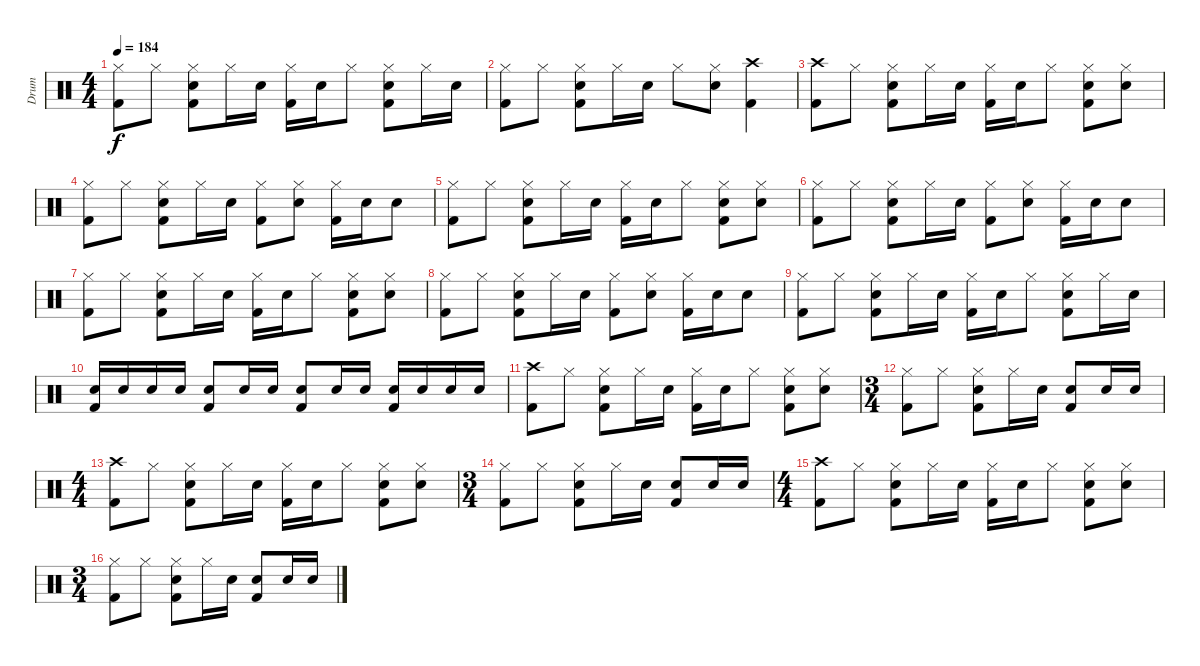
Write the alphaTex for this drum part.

\track ("Drum" "Drum") {instrument percussion}
\staff {score}
\articulation defaults
\ts (4 4)
\tempo 184
\clef neutral
\ks c
("Hi-Hat (closed)" "Kick (hit) 2").8{dy f} "Hi-Hat (closed)".8 ("Hi-Hat (closed)" "Electric Snare (hit)" "Kick (hit) 2").8 "Hi-Hat (closed)".16 "Electric Snare (hit)".16 ("Hi-Hat (closed)" "Kick (hit) 2").16 "Electric Snare (hit)".16 "Hi-Hat (closed)".8 ("Hi-Hat (closed)" "Electric Snare (hit)" "Kick (hit) 2").8 "Hi-Hat (closed)".16 "Electric Snare (hit)".16 |
("Hi-Hat (closed)" "Kick (hit) 2").8 "Hi-Hat (closed)".8 ("Hi-Hat (closed)" "Electric Snare (hit)" "Kick (hit) 2").8 "Hi-Hat (closed)".16 "Electric Snare (hit)".16 "Hi-Hat (closed)".8 ("Hi-Hat (closed)" "Electric Snare (hit)").8 ("Crash high (hit)" "Kick (hit) 2").4 |
("Crash high (hit)" "Kick (hit) 2").8 "Hi-Hat (closed)".8 ("Hi-Hat (closed)" "Electric Snare (hit)" "Kick (hit) 2").8 "Hi-Hat (closed)".16 "Electric Snare (hit)".16 ("Hi-Hat (closed)" "Kick (hit) 2").16 "Electric Snare (hit)".16 "Hi-Hat (closed)".8 ("Hi-Hat (closed)" "Electric Snare (hit)" "Kick (hit) 2").8 ("Hi-Hat (closed)" "Electric Snare (hit)").8 |
("Hi-Hat (closed)" "Kick (hit) 2").8 "Hi-Hat (closed)".8 ("Hi-Hat (closed)" "Electric Snare (hit)" "Kick (hit) 2").8 "Hi-Hat (closed)".16 "Electric Snare (hit)".16 ("Hi-Hat (closed)" "Kick (hit) 2").8 ("Hi-Hat (closed)" "Electric Snare (hit)").8 ("Hi-Hat (closed)" "Kick (hit) 2").16 "Electric Snare (hit)".16 "Electric Snare (hit)".8 |
("Hi-Hat (closed)" "Kick (hit) 2").8 "Hi-Hat (closed)".8 ("Hi-Hat (closed)" "Electric Snare (hit)" "Kick (hit) 2").8 "Hi-Hat (closed)".16 "Electric Snare (hit)".16 ("Hi-Hat (closed)" "Kick (hit) 2").16 "Electric Snare (hit)".16 "Hi-Hat (closed)".8 ("Hi-Hat (closed)" "Electric Snare (hit)" "Kick (hit) 2").8 ("Hi-Hat (closed)" "Electric Snare (hit)").8 |
("Hi-Hat (closed)" "Kick (hit) 2").8 "Hi-Hat (closed)".8 ("Hi-Hat (closed)" "Electric Snare (hit)" "Kick (hit) 2").8 "Hi-Hat (closed)".16 "Electric Snare (hit)".16 ("Hi-Hat (closed)" "Kick (hit) 2").8 ("Hi-Hat (closed)" "Electric Snare (hit)").8 ("Hi-Hat (closed)" "Kick (hit) 2").16 "Electric Snare (hit)".16 "Electric Snare (hit)".8 |
("Hi-Hat (closed)" "Kick (hit) 2").8 "Hi-Hat (closed)".8 ("Hi-Hat (closed)" "Electric Snare (hit)" "Kick (hit) 2").8 "Hi-Hat (closed)".16 "Electric Snare (hit)".16 ("Hi-Hat (closed)" "Kick (hit) 2").16 "Electric Snare (hit)".16 "Hi-Hat (closed)".8 ("Hi-Hat (closed)" "Electric Snare (hit)" "Kick (hit) 2").8 ("Hi-Hat (closed)" "Electric Snare (hit)").8 |
("Hi-Hat (closed)" "Kick (hit) 2").8 "Hi-Hat (closed)".8 ("Hi-Hat (closed)" "Electric Snare (hit)" "Kick (hit) 2").8 "Hi-Hat (closed)".16 "Electric Snare (hit)".16 ("Hi-Hat (closed)" "Kick (hit) 2").8 ("Hi-Hat (closed)" "Electric Snare (hit)").8 ("Hi-Hat (closed)" "Kick (hit) 2").16 "Electric Snare (hit)".16 "Electric Snare (hit)".8 |
("Hi-Hat (closed)" "Kick (hit) 2").8 "Hi-Hat (closed)".8 ("Hi-Hat (closed)" "Electric Snare (hit)" "Kick (hit) 2").8 "Hi-Hat (closed)".16 "Electric Snare (hit)".16 ("Hi-Hat (closed)" "Kick (hit) 2").16 "Electric Snare (hit)".16 "Hi-Hat (closed)".8 ("Hi-Hat (closed)" "Electric Snare (hit)" "Kick (hit) 2").8 "Hi-Hat (closed)".16 "Electric Snare (hit)".16 |
("Electric Snare (hit)" "Kick (hit) 2").16 "Electric Snare (hit)".16 "Electric Snare (hit)".16 "Electric Snare (hit)".16 ("Electric Snare (hit)" "Kick (hit) 2").8 "Electric Snare (hit)".16 "Electric Snare (hit)".16 ("Electric Snare (hit)" "Kick (hit) 2").8 "Electric Snare (hit)".16 "Electric Snare (hit)".16 ("Electric Snare (hit)" "Kick (hit) 2").16 "Electric Snare (hit)".16 "Electric Snare (hit)".16 "Electric Snare (hit)".16 |
("Crash high (hit)" "Kick (hit) 2").8 "Hi-Hat (closed)".8 ("Hi-Hat (closed)" "Electric Snare (hit)" "Kick (hit) 2").8 "Hi-Hat (closed)".16 "Electric Snare (hit)".16 ("Hi-Hat (closed)" "Kick (hit) 2").16 "Electric Snare (hit)".16 "Hi-Hat (closed)".8 ("Hi-Hat (closed)" "Electric Snare (hit)" "Kick (hit) 2").8 ("Hi-Hat (closed)" "Electric Snare (hit)").8 |
\ts (3 4)
("Hi-Hat (closed)" "Kick (hit) 2").8 "Hi-Hat (closed)".8 ("Hi-Hat (closed)" "Electric Snare (hit)" "Kick (hit) 2").8 "Hi-Hat (closed)".16 "Electric Snare (hit)".16 ("Electric Snare (hit)" "Kick (hit) 2").8 "Electric Snare (hit)".16 "Electric Snare (hit)".16 |
\ts (4 4)
("Crash high (hit)" "Kick (hit) 2").8 "Hi-Hat (closed)".8 ("Hi-Hat (closed)" "Electric Snare (hit)" "Kick (hit) 2").8 "Hi-Hat (closed)".16 "Electric Snare (hit)".16 ("Hi-Hat (closed)" "Kick (hit) 2").16 "Electric Snare (hit)".16 "Hi-Hat (closed)".8 ("Hi-Hat (closed)" "Electric Snare (hit)" "Kick (hit) 2").8 ("Hi-Hat (closed)" "Electric Snare (hit)").8 |
\ts (3 4)
("Hi-Hat (closed)" "Kick (hit) 2").8 "Hi-Hat (closed)".8 ("Hi-Hat (closed)" "Electric Snare (hit)" "Kick (hit) 2").8 "Hi-Hat (closed)".16 "Electric Snare (hit)".16 ("Electric Snare (hit)" "Kick (hit) 2").8 "Electric Snare (hit)".16 "Electric Snare (hit)".16 |
\ts (4 4)
("Crash high (hit)" "Kick (hit) 2").8 "Hi-Hat (closed)".8 ("Hi-Hat (closed)" "Electric Snare (hit)" "Kick (hit) 2").8 "Hi-Hat (closed)".16 "Electric Snare (hit)".16 ("Hi-Hat (closed)" "Kick (hit) 2").16 "Electric Snare (hit)".16 "Hi-Hat (closed)".8 ("Hi-Hat (closed)" "Electric Snare (hit)" "Kick (hit) 2").8 ("Hi-Hat (closed)" "Electric Snare (hit)").8 |
\ts (3 4)
("Hi-Hat (closed)" "Kick (hit) 2").8 "Hi-Hat (closed)".8 ("Hi-Hat (closed)" "Electric Snare (hit)" "Kick (hit) 2").8 "Hi-Hat (closed)".16 "Electric Snare (hit)".16 ("Electric Snare (hit)" "Kick (hit) 2").8 "Electric Snare (hit)".16 "Electric Snare (hit)".16
